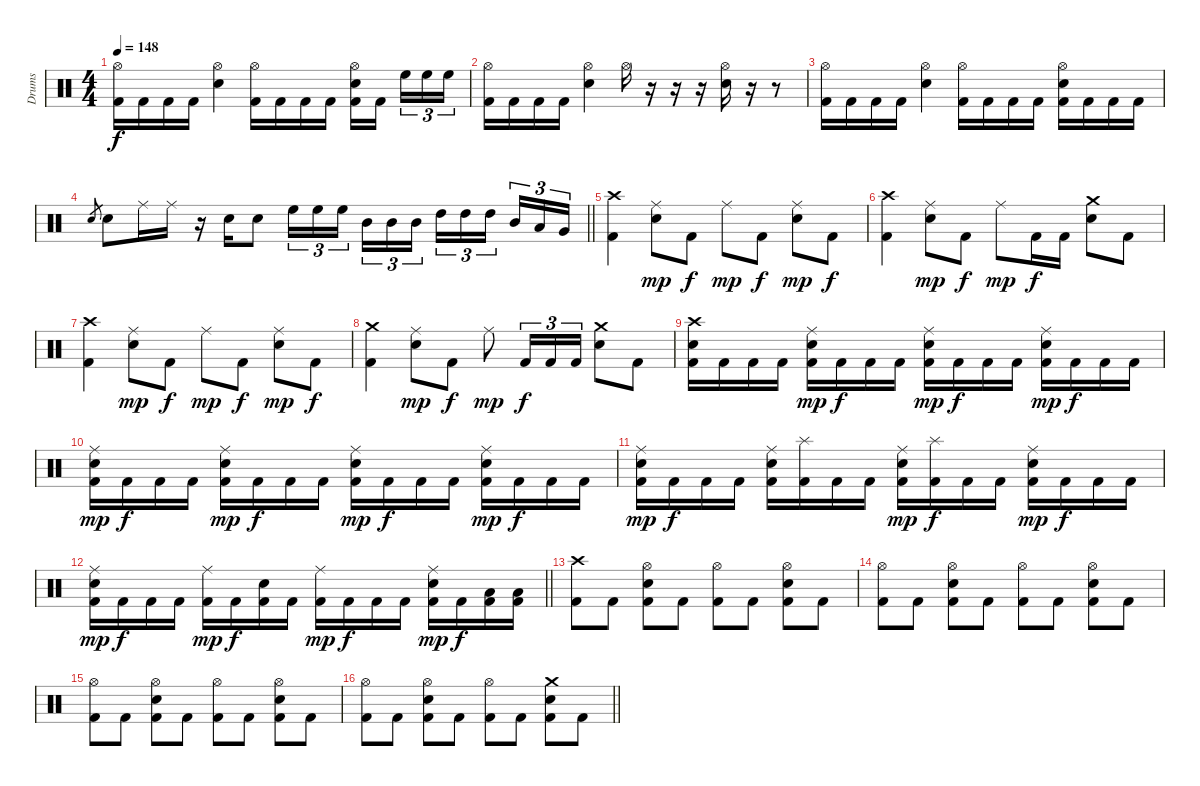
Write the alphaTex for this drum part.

\track ("Drums" "Drums") {instrument percussion}
\staff {score}
\articulation defaults
\ts (4 4)
\tempo 148
\clef neutral
\ks c
("Hi-Hat (open)" "Kick (hit) 2").16{dy f} "Kick (hit) 2".16 "Kick (hit) 2".16 "Kick (hit) 2".16 ("Electric Snare (hit)" "Hi-Hat (open)").4 ("Hi-Hat (open)" "Kick (hit) 2").16 "Kick (hit) 2".16 "Kick (hit) 2".16 "Kick (hit) 2".16 ("Electric Snare (hit)" "Hi-Hat (open)" "Kick (hit) 2").16 "Kick (hit) 2".16 "High Floor Tom (hit)".16{tu (3 2)} "High Floor Tom (hit)".16{tu (3 2)} "High Floor Tom (hit)".16{tu (3 2)} |
("Hi-Hat (open)" "Kick (hit) 2").16 "Kick (hit) 2".16 "Kick (hit) 2".16 "Kick (hit) 2".16 ("Electric Snare (hit)" "Hi-Hat (open)").4 "Hi-Hat (open)".16 r.16 r.16 r.16 ("Electric Snare (hit)" "Hi-Hat (open)").16 r.16 r.8 |
("Hi-Hat (open)" "Kick (hit) 2").16 "Kick (hit) 2".16 "Kick (hit) 2".16 "Kick (hit) 2".16 ("Electric Snare (hit)" "Hi-Hat (open)").4 ("Hi-Hat (open)" "Kick (hit) 2").16 "Kick (hit) 2".16 "Kick (hit) 2".16 "Kick (hit) 2".16 ("Electric Snare (hit)" "Hi-Hat (open)" "Kick (hit) 2").16 "Kick (hit) 2".16 "Kick (hit) 2".16 "Kick (hit) 2".16 |
\barLineRight lightlight "Electric Snare (hit)".8{gr} "Electric Snare (hit)".8 "Ride (middle)".16 "Ride (middle)".16
r.16 "Electric Snare (hit)".16 "Electric Snare (hit)".8 "High Floor Tom (hit)".16{tu (3 2)} "High Floor Tom (hit)".16{tu (3 2)} "High Floor Tom (hit)".16{tu (3 2)} "Mid Tom (hit)".16{tu (3 2)} "Mid Tom (hit)".16{tu (3 2)} "Mid Tom (hit)".16{tu (3 2)} "High Tom (hit)".16{tu (3 2)} "High Tom (hit)".16{tu (3 2)} "High Tom (hit)".16{tu (3 2)} "Mid Tom (hit)".16{tu (3 2)} "Low Tom (hit)".16{tu (3 2)} "Very Low Tom (hit)".16{tu (3 2)} |
\section ("" "")
("Crash high (hit)" "Kick (hit) 2").4 ("Ride (middle)" "Electric Snare (hit)").8{dy mp} "Kick (hit) 2".8{dy f} "Ride (middle)".8{dy mp} "Kick (hit) 2".8{dy f} ("Ride (middle)" "Electric Snare (hit)").8{dy mp} "Kick (hit) 2".8{dy f} |
("Crash high (hit)" "Kick (hit) 2").4 ("Ride (middle)" "Electric Snare (hit)").8{dy mp} "Kick (hit) 2".8{dy f} "Ride (middle)".8{dy mp} "Kick (hit) 2".16{dy f} "Kick (hit) 2".16 ("Crash medium (hit)" "Electric Snare (hit)").8 "Kick (hit) 2".8 |
("Crash high (hit)" "Kick (hit) 2").4 ("Ride (middle)" "Electric Snare (hit)").8{dy mp} "Kick (hit) 2".8{dy f} "Ride (middle)".8{dy mp} "Kick (hit) 2".8{dy f} ("Ride (middle)" "Electric Snare (hit)").8{dy mp} "Kick (hit) 2".8{dy f} |
("Crash medium (hit)" "Kick (hit) 2").4 ("Ride (middle)" "Electric Snare (hit)").8{dy mp} "Kick (hit) 2".8{dy f} "Ride (middle)".8{dy mp} "Kick (hit) 2".16{tu (3 2) dy f} "Kick (hit) 2".16{tu (3 2)} "Kick (hit) 2".16{tu (3 2)} ("Crash medium (hit)" "Electric Snare (hit)").8 "Kick (hit) 2".8 |
("Crash high (hit)" "Electric Snare (hit)" "Kick (hit) 2").16 "Kick (hit) 2".16 "Kick (hit) 2".16 "Kick (hit) 2".16 ("Ride (middle)" "Electric Snare (hit)" "Kick (hit) 2").16{dy mp} "Kick (hit) 2".16{dy f} "Kick (hit) 2".16 "Kick (hit) 2".16 ("Ride (middle)" "Electric Snare (hit)" "Kick (hit) 2").16{dy mp} "Kick (hit) 2".16{dy f} "Kick (hit) 2".16 "Kick (hit) 2".16 ("Ride (middle)" "Electric Snare (hit)" "Kick (hit) 2").16{dy mp} "Kick (hit) 2".16{dy f} "Kick (hit) 2".16 "Kick (hit) 2".16 |
("Ride (middle)" "Electric Snare (hit)" "Kick (hit) 2").16{dy mp} "Kick (hit) 2".16{dy f} "Kick (hit) 2".16 "Kick (hit) 2".16 ("Ride (middle)" "Electric Snare (hit)" "Kick (hit) 2").16{dy mp} "Kick (hit) 2".16{dy f} "Kick (hit) 2".16 "Kick (hit) 2".16 ("Ride (middle)" "Electric Snare (hit)" "Kick (hit) 2").16{dy mp} "Kick (hit) 2".16{dy f} "Kick (hit) 2".16 "Kick (hit) 2".16 ("Ride (middle)" "Electric Snare (hit)" "Kick (hit) 2").16{dy mp} "Kick (hit) 2".16{dy f} "Kick (hit) 2".16 "Kick (hit) 2".16 |
("Ride (middle)" "Electric Snare (hit)" "Kick (hit) 2").16{dy mp} "Kick (hit) 2".16{dy f} "Kick (hit) 2".16 "Kick (hit) 2".16 ("Ride (middle)" "Electric Snare (hit)" "Kick (hit) 2").16 ("Splash (hit)" "Kick (hit) 2").16 "Kick (hit) 2".16 "Kick (hit) 2".16 ("Ride (middle)" "Electric Snare (hit)" "Kick (hit) 2").16{dy mp} ("Splash (hit)" "Kick (hit) 2").16{dy f} "Kick (hit) 2".16 "Kick (hit) 2".16 ("Ride (middle)" "Electric Snare (hit)" "Kick (hit) 2").16{dy mp} "Kick (hit) 2".16{dy f} "Kick (hit) 2".16 "Kick (hit) 2".16 |
\barLineRight lightlight
("Ride (middle)" "Electric Snare (hit)" "Kick (hit) 2").16{dy mp} "Kick (hit) 2".16{dy f} "Kick (hit) 2".16 "Kick (hit) 2".16 ("Ride (middle)" "Kick (hit) 2").16{dy mp} "Kick (hit) 2".16{dy f} ("Electric Snare (hit)" "Kick (hit) 2").16 "Kick (hit) 2".16 ("Ride (middle)" "Kick (hit) 2").16{dy mp} "Kick (hit) 2".16{dy f} "Kick (hit) 2".16 "Kick (hit) 2".16 ("Ride (middle)" "Electric Snare (hit)" "Kick (hit) 2").16{dy mp} "Kick (hit) 2".16{dy f} ("Low Tom (hit)" "Kick (hit) 2").16 ("Low Tom (hit)" "Kick (hit) 2").16 |
\section ("" "")
("Crash high (hit)" "Kick (hit) 2").8 "Kick (hit) 2".8 ("Hi-Hat (open)" "Electric Snare (hit)" "Kick (hit) 2").8 "Kick (hit) 2".8 ("Hi-Hat (open)" "Kick (hit) 2").8 "Kick (hit) 2".8 ("Hi-Hat (open)" "Electric Snare (hit)" "Kick (hit) 2").8 "Kick (hit) 2".8 |
("Hi-Hat (open)" "Kick (hit) 2").8 "Kick (hit) 2".8 ("Hi-Hat (open)" "Electric Snare (hit)" "Kick (hit) 2").8 "Kick (hit) 2".8 ("Hi-Hat (open)" "Kick (hit) 2").8 "Kick (hit) 2".8 ("Hi-Hat (open)" "Electric Snare (hit)" "Kick (hit) 2").8 "Kick (hit) 2".8 |
("Hi-Hat (open)" "Kick (hit) 2").8 "Kick (hit) 2".8 ("Hi-Hat (open)" "Electric Snare (hit)" "Kick (hit) 2").8 "Kick (hit) 2".8 ("Hi-Hat (open)" "Kick (hit) 2").8 "Kick (hit) 2".8 ("Hi-Hat (open)" "Electric Snare (hit)" "Kick (hit) 2").8 "Kick (hit) 2".8 |
\barLineRight lightlight
("Hi-Hat (open)" "Kick (hit) 2").8 "Kick (hit) 2".8 ("Hi-Hat (open)" "Electric Snare (hit)" "Kick (hit) 2").8 "Kick (hit) 2".8 ("Hi-Hat (open)" "Kick (hit) 2").8 "Kick (hit) 2".8 ("Crash medium (hit)" "Electric Snare (hit)" "Kick (hit) 2").8 "Kick (hit) 2".8
